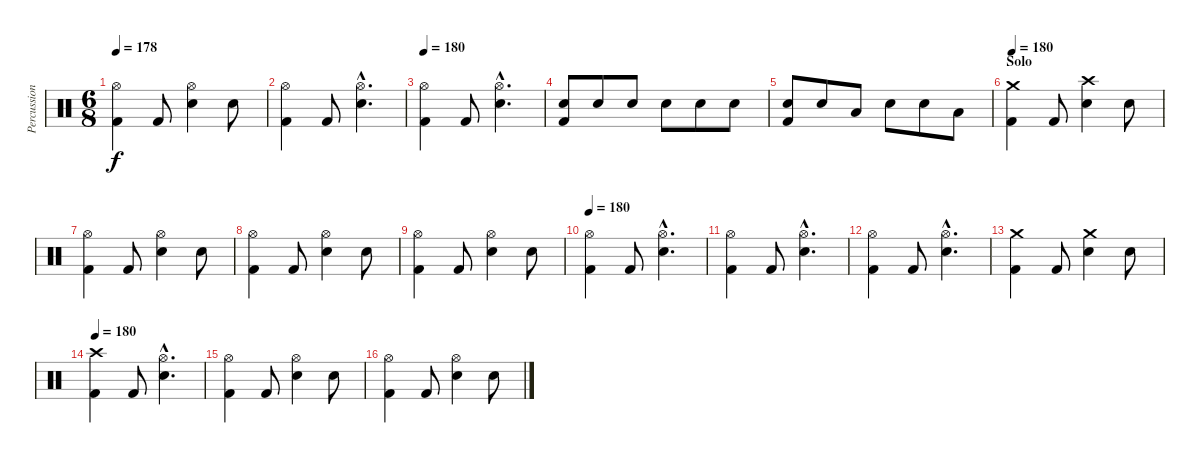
\track ("Percussion" "Percussion") {instrument percussion}
\staff {score}
\articulation defaults
\ts (6 8)
\tempo 178
\clef neutral
\ks c
("Hi-Hat (open)" "Kick (hit) 2").4{dy f} "Kick (hit) 2".8 ("Hi-Hat (open)" "Electric Snare (hit)").4 "Electric Snare (hit)".8 |
("Hi-Hat (open)" "Kick (hit) 2").4 "Kick (hit) 2".8 ("Hi-Hat (open)"{hac} "Electric Snare (hit)"{hac}).4{d} |
\tempo 180
("Hi-Hat (open)" "Kick (hit) 2").4 "Kick (hit) 2".8 ("Hi-Hat (open)"{hac} "Electric Snare (hit)"{hac}).4{d} |
("Electric Snare (hit)" "Kick (hit) 2").8 "Electric Snare (hit)".8 "Electric Snare (hit)".8 "Electric Snare (hit)".8 "Electric Snare (hit)".8 "Electric Snare (hit)".8 |
("Electric Snare (hit)" "Kick (hit) 2").8 "Electric Snare (hit)".8 "Low Tom (hit)".8 "Electric Snare (hit)".8 "Electric Snare (hit)".8 "Low Tom (hit)".8 |
\section ("" "Solo")
\tempo 180
("Crash medium (hit)" "Kick (hit) 2").4 "Kick (hit) 2".8 ("Crash high (hit)" "Electric Snare (hit)").4 "Electric Snare (hit)".8 |
("Hi-Hat (open)" "Kick (hit) 2").4 "Kick (hit) 2".8 ("Hi-Hat (open)" "Electric Snare (hit)").4 "Electric Snare (hit)".8 |
("Hi-Hat (open)" "Kick (hit) 2").4 "Kick (hit) 2".8 ("Hi-Hat (open)" "Electric Snare (hit)").4 "Electric Snare (hit)".8 |
("Hi-Hat (open)" "Kick (hit) 2").4 "Kick (hit) 2".8 ("Hi-Hat (open)" "Electric Snare (hit)").4 "Electric Snare (hit)".8 |
\tempo 180
("Hi-Hat (open)" "Kick (hit) 2").4 "Kick (hit) 2".8 ("Hi-Hat (open)"{hac} "Electric Snare (hit)"{hac}).4{d} |
("Hi-Hat (open)" "Kick (hit) 2").4 "Kick (hit) 2".8 ("Hi-Hat (open)"{hac} "Electric Snare (hit)"{hac}).4{d} |
("Hi-Hat (open)" "Kick (hit) 2").4 "Kick (hit) 2".8 ("Hi-Hat (open)"{hac} "Electric Snare (hit)"{hac}).4{d} |
("Crash medium (hit)" "Kick (hit) 2").4 "Kick (hit) 2".8 ("Crash medium (hit)" "Electric Snare (hit)").4 "Electric Snare (hit)".8 |
\tempo 180
("Crash high (hit)" "Kick (hit) 2").4 "Kick (hit) 2".8 ("Hi-Hat (open)"{hac} "Electric Snare (hit)"{hac}).4{d} |
("Hi-Hat (open)" "Kick (hit) 2").4 "Kick (hit) 2".8 ("Hi-Hat (open)" "Electric Snare (hit)").4 "Electric Snare (hit)".8 |
("Hi-Hat (open)" "Kick (hit) 2").4 "Kick (hit) 2".8 ("Hi-Hat (open)" "Electric Snare (hit)").4 "Electric Snare (hit)".8
